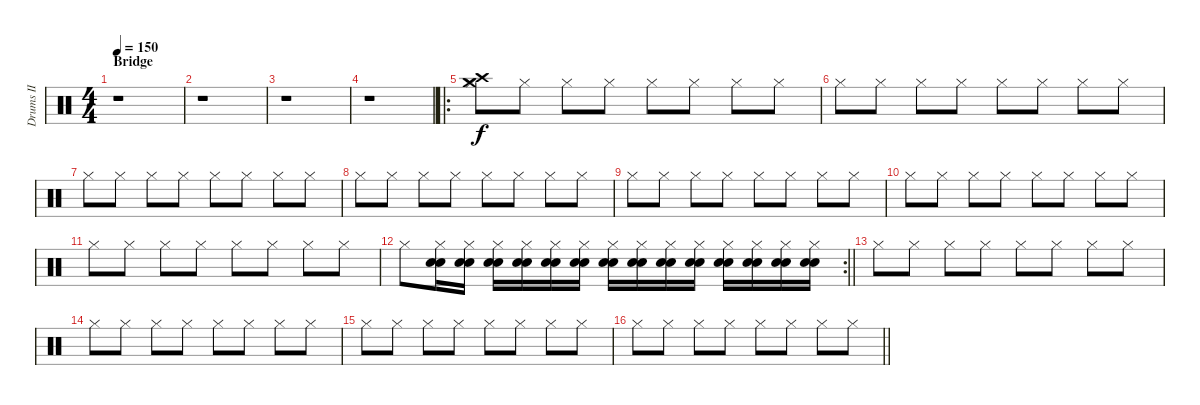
\track ("Drums II" "Drums II") {instrument percussion}
\staff {score}
\articulation defaults
\ts (4 4)
\section ("" "Bridge")
\tempo 150
\clef neutral
\ks c
r.1{dy f} |
r.1 |
r.1 |
r.1 |
\ro
("Hi-Hat (closed)" "Crash high (hit)" "Crash medium (hit)").8 "Hi-Hat (closed)".8 "Hi-Hat (closed)".8 "Hi-Hat (closed)".8 "Hi-Hat (closed)".8 "Hi-Hat (closed)".8 "Hi-Hat (closed)".8 "Hi-Hat (closed)".8 |
"Hi-Hat (closed)".8 "Hi-Hat (closed)".8 "Hi-Hat (closed)".8 "Hi-Hat (closed)".8 "Hi-Hat (closed)".8 "Hi-Hat (closed)".8 "Hi-Hat (closed)".8 "Hi-Hat (closed)".8 |
"Hi-Hat (closed)".8 "Hi-Hat (closed)".8 "Hi-Hat (closed)".8 "Hi-Hat (closed)".8 "Hi-Hat (closed)".8 "Hi-Hat (closed)".8 "Hi-Hat (closed)".8 "Hi-Hat (closed)".8 |
"Hi-Hat (closed)".8 "Hi-Hat (closed)".8 "Hi-Hat (closed)".8 "Hi-Hat (closed)".8 "Hi-Hat (closed)".8 "Hi-Hat (closed)".8 "Hi-Hat (closed)".8 "Hi-Hat (closed)".8 |
"Hi-Hat (closed)".8 "Hi-Hat (closed)".8 "Hi-Hat (closed)".8 "Hi-Hat (closed)".8 "Hi-Hat (closed)".8 "Hi-Hat (closed)".8 "Hi-Hat (closed)".8 "Hi-Hat (closed)".8 |
"Hi-Hat (closed)".8 "Hi-Hat (closed)".8 "Hi-Hat (closed)".8 "Hi-Hat (closed)".8 "Hi-Hat (closed)".8 "Hi-Hat (closed)".8 "Hi-Hat (closed)".8 "Hi-Hat (closed)".8 |
"Hi-Hat (closed)".8 "Hi-Hat (closed)".8 "Hi-Hat (closed)".8 "Hi-Hat (closed)".8 "Hi-Hat (closed)".8 "Hi-Hat (closed)".8 "Hi-Hat (closed)".8 "Hi-Hat (closed)".8 |
\rc 2
\barLineRight lightlight "Hi-Hat (closed)".8
("Hi-Hat (closed)" "Electric Snare (hit)" "Snare (hit) 2").16 ("Hi-Hat (closed)" "Electric Snare (hit)" "Snare (hit) 2").16 ("Hi-Hat (closed)" "Electric Snare (hit)" "Snare (hit) 2").16 ("Hi-Hat (closed)" "Electric Snare (hit)" "Snare (hit) 2").16 ("Hi-Hat (closed)" "Electric Snare (hit)" "Snare (hit) 2").16 ("Hi-Hat (closed)" "Electric Snare (hit)" "Snare (hit) 2").16 ("Hi-Hat (closed)" "Electric Snare (hit)" "Snare (hit) 2").16 ("Hi-Hat (closed)" "Electric Snare (hit)" "Snare (hit) 2").16 ("Hi-Hat (closed)" "Electric Snare (hit)" "Snare (hit) 2").16 ("Hi-Hat (closed)" "Electric Snare (hit)" "Snare (hit) 2").16 ("Hi-Hat (closed)" "Electric Snare (hit)" "Snare (hit) 2").16 ("Hi-Hat (closed)" "Electric Snare (hit)" "Snare (hit) 2").16 ("Hi-Hat (closed)" "Electric Snare (hit)" "Snare (hit) 2").16 ("Hi-Hat (closed)" "Electric Snare (hit)" "Snare (hit) 2").16 |
"Hi-Hat (closed)".8 "Hi-Hat (closed)".8 "Hi-Hat (closed)".8 "Hi-Hat (closed)".8 "Hi-Hat (closed)".8 "Hi-Hat (closed)".8 "Hi-Hat (closed)".8 "Hi-Hat (closed)".8 |
"Hi-Hat (closed)".8 "Hi-Hat (closed)".8 "Hi-Hat (closed)".8 "Hi-Hat (closed)".8 "Hi-Hat (closed)".8 "Hi-Hat (closed)".8 "Hi-Hat (closed)".8 "Hi-Hat (closed)".8 |
"Hi-Hat (closed)".8 "Hi-Hat (closed)".8 "Hi-Hat (closed)".8 "Hi-Hat (closed)".8 "Hi-Hat (closed)".8 "Hi-Hat (closed)".8 "Hi-Hat (closed)".8 "Hi-Hat (closed)".8 |
\barLineRight lightlight "Hi-Hat (closed)".8 "Hi-Hat (closed)".8 "Hi-Hat (closed)".8 "Hi-Hat (closed)".8 "Hi-Hat (closed)".8 "Hi-Hat (closed)".8 "Hi-Hat (closed)".8 "Hi-Hat (closed)".8
